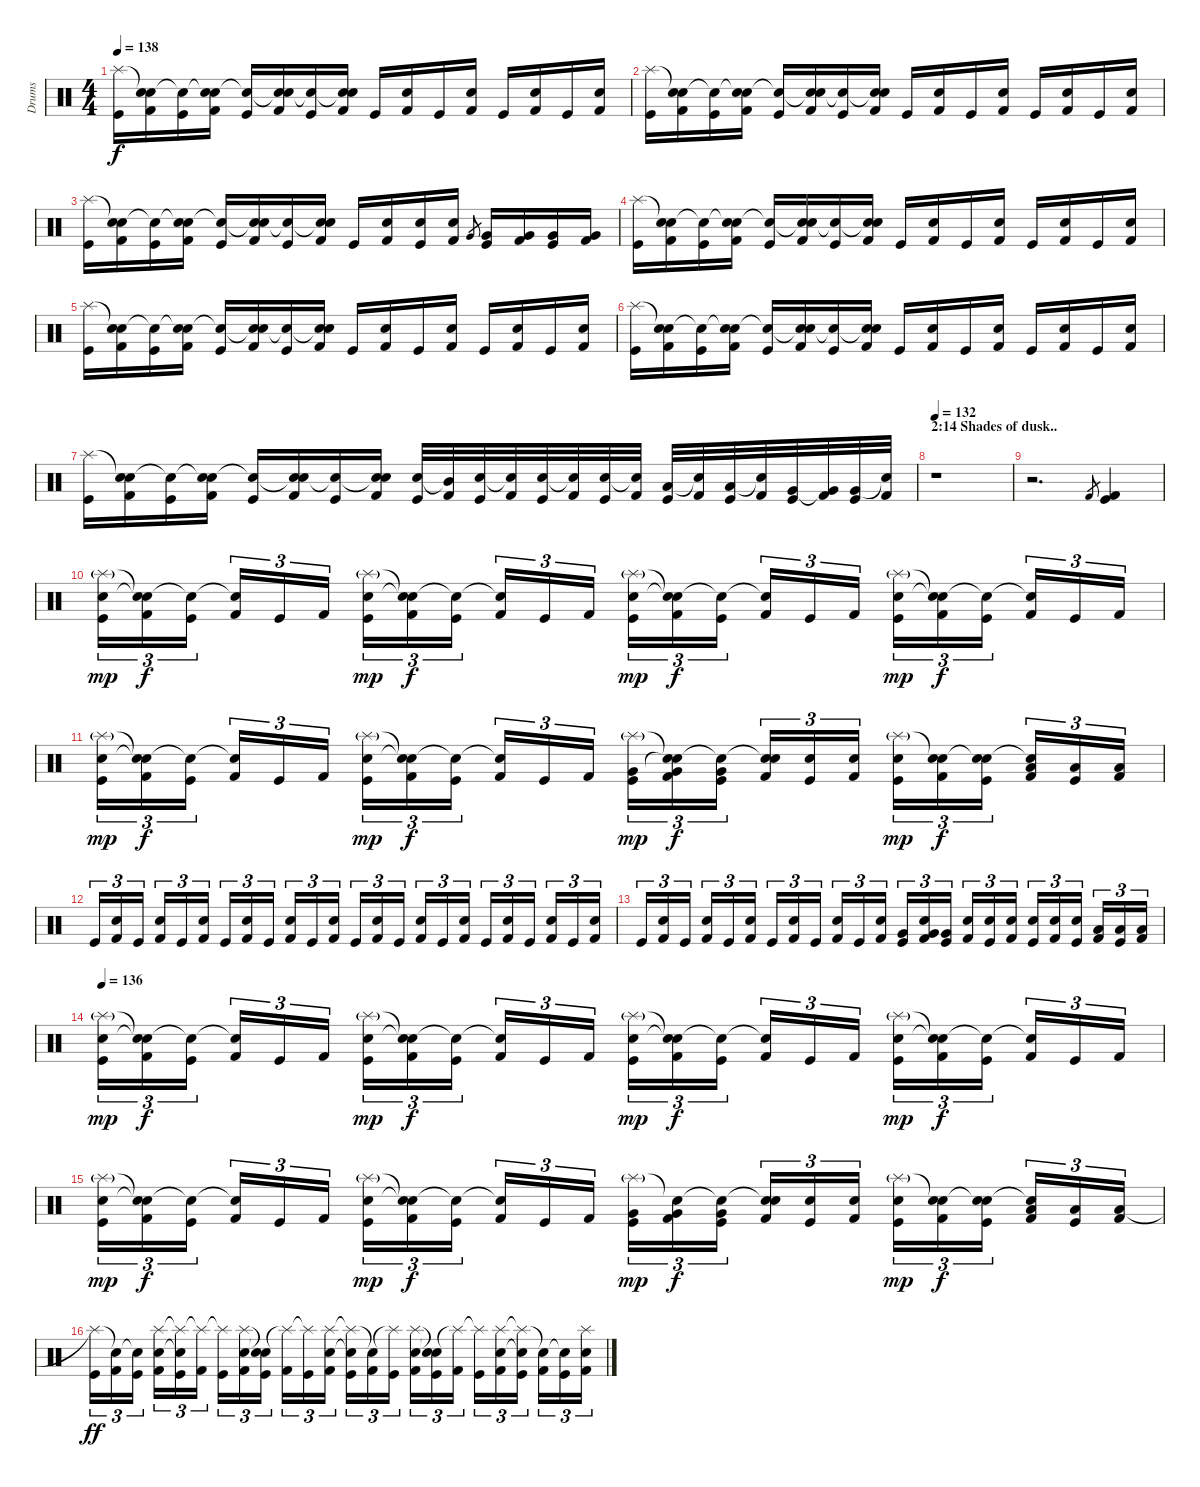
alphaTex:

\track ("Drums" "Drums") {instrument percussion}
\staff {score}
\articulation defaults
\ts (4 4)
\tempo 138
\clef neutral
\ks c
("Splash (hit)" "Kick (hit)").16{dy f} ("Snare (hit)"{t} "Snare (hit) 2" "Kick (hit) 2").16 ("Snare (hit)"{t} "Kick (hit)").16 ("Snare (hit)"{t} "Snare (hit) 2" "Kick (hit) 2").16 ("Snare (hit)"{t} "Kick (hit)").16 ("Snare (hit)"{t} "Snare (hit) 2" "Kick (hit) 2").16 ("Snare (hit)"{t} "Kick (hit)").16 ("Snare (hit)"{t} "Snare (hit) 2" "Kick (hit) 2").16 "Kick (hit)".16 ("Snare (hit) 2" "Kick (hit) 2").16 "Kick (hit)".16 ("Snare (hit) 2" "Kick (hit) 2").16 "Kick (hit)".16 ("Snare (hit) 2" "Kick (hit) 2").16 "Kick (hit)".16 ("Snare (hit) 2" "Kick (hit) 2").16 |
("Splash (hit)" "Kick (hit)").16 ("Snare (hit)"{t} "Snare (hit) 2" "Kick (hit) 2").16 ("Snare (hit)"{t} "Kick (hit)").16 ("Snare (hit)"{t} "Snare (hit) 2" "Kick (hit) 2").16 ("Snare (hit)"{t} "Kick (hit)").16 ("Snare (hit)"{t} "Snare (hit) 2" "Kick (hit) 2").16 ("Snare (hit)"{t} "Kick (hit)").16 ("Snare (hit)"{t} "Snare (hit) 2" "Kick (hit) 2").16 "Kick (hit)".16 ("Snare (hit) 2" "Kick (hit) 2").16 "Kick (hit)".16 ("Snare (hit) 2" "Kick (hit) 2").16 "Kick (hit)".16 ("Snare (hit) 2" "Kick (hit) 2").16 "Kick (hit)".16 ("Snare (hit) 2" "Kick (hit) 2").16 |
("Splash (hit)" "Kick (hit)").16 ("Snare (hit)"{t} "Snare (hit) 2" "Kick (hit) 2").16 ("Snare (hit)"{t} "Kick (hit)").16 ("Snare (hit)"{t} "Snare (hit) 2" "Kick (hit) 2").16 ("Snare (hit)"{t} "Kick (hit)").16 ("Snare (hit)"{t} "Snare (hit) 2" "Kick (hit) 2").16 ("Snare (hit)"{t} "Kick (hit)").16 ("Snare (hit)"{t} "Snare (hit) 2" "Kick (hit) 2").16 "Kick (hit)".16 ("Snare (hit) 2" "Kick (hit) 2").16 ("Snare (hit) 2" "Kick (hit)").16 ("Snare (hit) 2" "Kick (hit) 2").16 "Very Low Tom (hit)".8{gr} ("Very Low Tom (hit)" "Kick (hit)").16 ("Very Low Tom (hit)" "Kick (hit) 2").16 ("Very Low Tom (hit)" "Kick (hit)").16 ("Very Low Tom (hit)" "Kick (hit) 2").16 |
("Splash (hit)" "Kick (hit)").16 ("Snare (hit)"{t} "Snare (hit) 2" "Kick (hit) 2").16 ("Snare (hit)"{t} "Kick (hit)").16 ("Snare (hit)"{t} "Snare (hit) 2" "Kick (hit) 2").16 ("Snare (hit)"{t} "Kick (hit)").16 ("Snare (hit)"{t} "Snare (hit) 2" "Kick (hit) 2").16 ("Snare (hit)"{t} "Kick (hit)").16 ("Snare (hit)"{t} "Snare (hit) 2" "Kick (hit) 2").16 "Kick (hit)".16 ("Snare (hit) 2" "Kick (hit) 2").16 "Kick (hit)".16 ("Snare (hit) 2" "Kick (hit) 2").16 "Kick (hit)".16 ("Snare (hit) 2" "Kick (hit) 2").16 "Kick (hit)".16 ("Snare (hit) 2" "Kick (hit) 2").16 |
("Splash (hit)" "Kick (hit)").16 ("Snare (hit)"{t} "Snare (hit) 2" "Kick (hit) 2").16 ("Snare (hit)"{t} "Kick (hit)").16 ("Snare (hit)"{t} "Snare (hit) 2" "Kick (hit) 2").16 ("Snare (hit)"{t} "Kick (hit)").16 ("Snare (hit)"{t} "Snare (hit) 2" "Kick (hit) 2").16 ("Snare (hit)"{t} "Kick (hit)").16 ("Snare (hit)"{t} "Snare (hit) 2" "Kick (hit) 2").16 "Kick (hit)".16 ("Snare (hit) 2" "Kick (hit) 2").16 "Kick (hit)".16 ("Snare (hit) 2" "Kick (hit) 2").16 "Kick (hit)".16 ("Snare (hit) 2" "Kick (hit) 2").16 "Kick (hit)".16 ("Snare (hit) 2" "Kick (hit) 2").16 |
("Splash (hit)" "Kick (hit)").16 ("Snare (hit)"{t} "Snare (hit) 2" "Kick (hit) 2").16 ("Snare (hit)"{t} "Kick (hit)").16 ("Snare (hit)"{t} "Snare (hit) 2" "Kick (hit) 2").16 ("Snare (hit)"{t} "Kick (hit)").16 ("Snare (hit)"{t} "Snare (hit) 2" "Kick (hit) 2").16 ("Snare (hit)"{t} "Kick (hit)").16 ("Snare (hit)"{t} "Snare (hit) 2" "Kick (hit) 2").16 "Kick (hit)".16 ("Snare (hit) 2" "Kick (hit) 2").16 "Kick (hit)".16 ("Snare (hit) 2" "Kick (hit) 2").16 "Kick (hit)".16 ("Snare (hit) 2" "Kick (hit) 2").16 "Kick (hit)".16 ("Snare (hit) 2" "Kick (hit) 2").16 |
("Splash (hit)" "Kick (hit)").16 ("Snare (hit)"{t} "Snare (hit) 2" "Kick (hit) 2").16 ("Snare (hit)"{t} "Kick (hit)").16 ("Snare (hit)"{t} "Snare (hit) 2" "Kick (hit) 2").16 ("Snare (hit)"{t} "Kick (hit)").16 ("Snare (hit)"{t} "Snare (hit) 2" "Kick (hit) 2").16 ("Snare (hit)"{t} "Kick (hit)").16 ("Snare (hit)"{t} "Snare (hit) 2" "Kick (hit) 2").16 ("Snare (hit) 2" "Kick (hit)").32 ("Mid Tom (hit)"{t} "Kick (hit) 2").32 ("Snare (hit) 2" "Kick (hit)").32 ("Snare (hit)"{t} "Kick (hit) 2").32 ("Snare (hit) 2" "Kick (hit)").32 ("Snare (hit)"{t} "Kick (hit) 2").32 ("Snare (hit) 2" "Kick (hit)").32 ("Snare (hit)"{t} "Kick (hit) 2").32 ("Low Tom (hit)" "Kick (hit)").32 ("Snare (hit)"{t} "Kick (hit) 2").32 ("Low Tom (hit)" "Kick (hit)").32 ("Snare (hit)"{t} "Kick (hit) 2").32 ("Very Low Tom (hit)" "Kick (hit)").32 ("Very Low Tom (hit)"{t} "Kick (hit) 2").32 ("Very Low Tom (hit)" "Kick (hit)").32 ("Snare (hit)"{t} "Kick (hit) 2").32 |
\section ("" "2:14 Shades of dusk..")
\tempo 132
r.1 |
r.2{d} "Kick (hit) 2".8{gr} ("Kick (hit) 2" "Kick (hit)").4 |
("Splash (hit)"{g} "Snare (hit) 2" "Kick (hit)").16{tu (3 2) dy mp} ("Snare (hit)"{t} "Snare (hit)"{t} "Kick (hit) 2").16{tu (3 2) dy f} ("Snare (hit)"{t} "Kick (hit)").16{tu (3 2)} ("Snare (hit)"{t} "Kick (hit) 2").16{tu (3 2)} "Kick (hit)".16{tu (3 2)} "Kick (hit) 2".16{tu (3 2)} ("Splash (hit)"{g} "Snare (hit) 2" "Kick (hit)").16{tu (3 2) dy mp} ("Snare (hit)"{t} "Snare (hit)"{t} "Kick (hit) 2").16{tu (3 2) dy f} ("Snare (hit)"{t} "Kick (hit)").16{tu (3 2)} ("Snare (hit)"{t} "Kick (hit) 2").16{tu (3 2)} "Kick (hit)".16{tu (3 2)} "Kick (hit) 2".16{tu (3 2)} ("Splash (hit)"{g} "Snare (hit) 2" "Kick (hit)").16{tu (3 2) dy mp} ("Snare (hit)"{t} "Snare (hit)"{t} "Kick (hit) 2").16{tu (3 2) dy f} ("Snare (hit)"{t} "Kick (hit)").16{tu (3 2)} ("Snare (hit)"{t} "Kick (hit) 2").16{tu (3 2)} "Kick (hit)".16{tu (3 2)} "Kick (hit) 2".16{tu (3 2)} ("Splash (hit)"{g} "Snare (hit) 2" "Kick (hit)").16{tu (3 2) dy mp} ("Snare (hit)"{t} "Snare (hit)"{t} "Kick (hit) 2").16{tu (3 2) dy f} ("Snare (hit)"{t} "Kick (hit)").16{tu (3 2)} ("Snare (hit)"{t} "Kick (hit) 2").16{tu (3 2)} "Kick (hit)".16{tu (3 2)} "Kick (hit) 2".16{tu (3 2)} |
("Splash (hit)"{g} "Snare (hit) 2" "Kick (hit)").16{tu (3 2) dy mp} ("Snare (hit)"{t} "Snare (hit)"{t} "Kick (hit) 2").16{tu (3 2) dy f} ("Snare (hit)"{t} "Kick (hit)").16{tu (3 2)} ("Snare (hit)"{t} "Kick (hit) 2").16{tu (3 2)} "Kick (hit)".16{tu (3 2)} "Kick (hit) 2".16{tu (3 2)} ("Splash (hit)"{g} "Snare (hit) 2" "Kick (hit)").16{tu (3 2) dy mp} ("Snare (hit)"{t} "Snare (hit)"{t} "Kick (hit) 2").16{tu (3 2) dy f} ("Snare (hit)"{t} "Kick (hit)").16{tu (3 2)} ("Snare (hit)"{t} "Kick (hit) 2").16{tu (3 2)} "Kick (hit)".16{tu (3 2)} "Kick (hit) 2".16{tu (3 2)} ("Splash (hit)"{g} "Very Low Tom (hit)" "Kick (hit)").16{tu (3 2) dy mp} ("Snare (hit)"{t} "Snare (hit)"{t} "Very Low Tom (hit)" "Kick (hit) 2").16{tu (3 2) dy f} ("Snare (hit)"{t} "Very Low Tom (hit)" "Kick (hit)").16{tu (3 2)} ("Snare (hit)"{t} "Snare (hit) 2" "Kick (hit) 2").16{tu (3 2)} ("Snare (hit) 2" "Kick (hit)").16{tu (3 2)} ("Snare (hit) 2" "Kick (hit) 2").16{tu (3 2)} ("Splash (hit)"{g} "Snare (hit) 2" "Kick (hit)").16{tu (3 2) dy mp} ("Snare (hit)"{t} "Snare (hit) 2" "Kick (hit) 2").16{tu (3 2) dy f} ("Snare (hit)"{t} "Snare (hit) 2" "Kick (hit)").16{tu (3 2)} ("Snare (hit)"{t} "Low Floor Tom (hit)" "Kick (hit) 2").16{tu (3 2)} ("Low Floor Tom (hit)" "Kick (hit)").16{tu (3 2)} ("Low Floor Tom (hit)" "Kick (hit) 2").16{tu (3 2)} |
"Kick (hit)".16{tu (3 2)} ("Snare (hit) 2" "Kick (hit) 2").16{tu (3 2)} "Kick (hit)".16{tu (3 2)} ("Snare (hit) 2" "Kick (hit) 2").16{tu (3 2)} "Kick (hit)".16{tu (3 2)} ("Snare (hit) 2" "Kick (hit) 2").16{tu (3 2)} "Kick (hit)".16{tu (3 2)} ("Snare (hit) 2" "Kick (hit) 2").16{tu (3 2)} "Kick (hit)".16{tu (3 2)} ("Snare (hit) 2" "Kick (hit) 2").16{tu (3 2)} "Kick (hit)".16{tu (3 2)} ("Snare (hit) 2" "Kick (hit) 2").16{tu (3 2)} "Kick (hit)".16{tu (3 2)} ("Snare (hit) 2" "Kick (hit) 2").16{tu (3 2)} "Kick (hit)".16{tu (3 2)} ("Snare (hit) 2" "Kick (hit) 2").16{tu (3 2)} "Kick (hit)".16{tu (3 2)} ("Snare (hit) 2" "Kick (hit) 2").16{tu (3 2)} "Kick (hit)".16{tu (3 2)} ("Snare (hit) 2" "Kick (hit) 2").16{tu (3 2)} "Kick (hit)".16{tu (3 2)} ("Snare (hit) 2" "Kick (hit) 2").16{tu (3 2)} "Kick (hit)".16{tu (3 2)} ("Snare (hit) 2" "Kick (hit) 2").16{tu (3 2)} |
"Kick (hit)".16{tu (3 2)} ("Snare (hit) 2" "Kick (hit) 2").16{tu (3 2)} "Kick (hit)".16{tu (3 2)} ("Snare (hit) 2" "Kick (hit) 2").16{tu (3 2)} "Kick (hit)".16{tu (3 2)} ("Snare (hit) 2" "Kick (hit) 2").16{tu (3 2)} "Kick (hit)".16{tu (3 2)} ("Snare (hit) 2" "Kick (hit) 2").16{tu (3 2)} "Kick (hit)".16{tu (3 2)} ("Snare (hit) 2" "Kick (hit) 2").16{tu (3 2)} "Kick (hit)".16{tu (3 2)} ("Snare (hit) 2" "Kick (hit) 2").16{tu (3 2)} ("Very Low Tom (hit)" "Kick (hit)").16{tu (3 2)} ("Snare (hit) 2" "Very Low Tom (hit)" "Kick (hit) 2").16{tu (3 2)} ("Very Low Tom (hit)" "Kick (hit)").16{tu (3 2)} ("Snare (hit) 2" "Kick (hit) 2").16{tu (3 2)} ("Snare (hit) 2" "Kick (hit)").16{tu (3 2)} ("Snare (hit) 2" "Kick (hit) 2").16{tu (3 2)} ("Snare (hit) 2" "Kick (hit)").16{tu (3 2)} ("Snare (hit) 2" "Kick (hit) 2").16{tu (3 2)} ("Snare (hit) 2" "Kick (hit)").16{tu (3 2)} ("Low Floor Tom (hit)" "Kick (hit) 2").16{tu (3 2)} ("Low Floor Tom (hit)" "Kick (hit)").16{tu (3 2)} ("Low Floor Tom (hit)" "Kick (hit) 2").16{tu (3 2)} |
\tempo 136
("Splash (hit)"{g} "Snare (hit) 2" "Kick (hit)").16{tu (3 2) dy mp} ("Snare (hit)"{t} "Snare (hit)"{t} "Kick (hit) 2").16{tu (3 2) dy f} ("Snare (hit)"{t} "Kick (hit)").16{tu (3 2)} ("Snare (hit)"{t} "Kick (hit) 2").16{tu (3 2)} "Kick (hit)".16{tu (3 2)} "Kick (hit) 2".16{tu (3 2)} ("Splash (hit)"{g} "Snare (hit) 2" "Kick (hit)").16{tu (3 2) dy mp} ("Snare (hit)"{t} "Snare (hit)"{t} "Kick (hit) 2").16{tu (3 2) dy f} ("Snare (hit)"{t} "Kick (hit)").16{tu (3 2)} ("Snare (hit)"{t} "Kick (hit) 2").16{tu (3 2)} "Kick (hit)".16{tu (3 2)} "Kick (hit) 2".16{tu (3 2)} ("Splash (hit)"{g} "Snare (hit) 2" "Kick (hit)").16{tu (3 2) dy mp} ("Snare (hit)"{t} "Snare (hit)"{t} "Kick (hit) 2").16{tu (3 2) dy f} ("Snare (hit)"{t} "Kick (hit)").16{tu (3 2)} ("Snare (hit)"{t} "Kick (hit) 2").16{tu (3 2)} "Kick (hit)".16{tu (3 2)} "Kick (hit) 2".16{tu (3 2)} ("Splash (hit)"{g} "Snare (hit) 2" "Kick (hit)").16{tu (3 2) dy mp} ("Snare (hit)"{t} "Snare (hit)"{t} "Kick (hit) 2").16{tu (3 2) dy f} ("Snare (hit)"{t} "Kick (hit)").16{tu (3 2)} ("Snare (hit)"{t} "Kick (hit) 2").16{tu (3 2)} "Kick (hit)".16{tu (3 2)} "Kick (hit) 2".16{tu (3 2)} |
("Splash (hit)"{g} "Snare (hit) 2" "Kick (hit)").16{tu (3 2) dy mp} ("Snare (hit)"{t} "Snare (hit)"{t} "Kick (hit) 2").16{tu (3 2) dy f} ("Snare (hit)"{t} "Kick (hit)").16{tu (3 2)} ("Snare (hit)"{t} "Kick (hit) 2").16{tu (3 2)} "Kick (hit)".16{tu (3 2)} "Kick (hit) 2".16{tu (3 2)} ("Splash (hit)"{g} "Snare (hit) 2" "Kick (hit)").16{tu (3 2) dy mp} ("Snare (hit)"{t} "Snare (hit)"{t} "Kick (hit) 2").16{tu (3 2) dy f} ("Snare (hit)"{t} "Kick (hit)").16{tu (3 2)} ("Snare (hit)"{t} "Kick (hit) 2").16{tu (3 2)} "Kick (hit)".16{tu (3 2)} "Kick (hit) 2".16{tu (3 2)} ("Splash (hit)"{g} "Very Low Tom (hit)" "Kick (hit)").16{tu (3 2) dy mp} ("Snare (hit)"{t} "Very Low Tom (hit)" "Kick (hit) 2").16{tu (3 2) dy f} ("Snare (hit)"{t} "Very Low Tom (hit)" "Kick (hit)").16{tu (3 2)} ("Snare (hit)"{t} "Snare (hit) 2" "Kick (hit) 2").16{tu (3 2)} ("Snare (hit) 2" "Kick (hit)").16{tu (3 2)} ("Snare (hit) 2" "Kick (hit) 2").16{tu (3 2)} ("Splash (hit)"{g} "Snare (hit) 2" "Kick (hit)").16{tu (3 2) dy mp} ("Snare (hit)"{t} "Snare (hit) 2" "Kick (hit) 2").16{tu (3 2) dy f} ("Snare (hit)"{t} "Snare (hit) 2" "Kick (hit)").16{tu (3 2)} ("Snare (hit)"{t} "Low Floor Tom (hit)" "Kick (hit) 2").16{tu (3 2)} ("Low Floor Tom (hit)" "Kick (hit)").16{tu (3 2)} ("Low Floor Tom (hit)" "Kick (hit) 2").16{tu (3 2)} |
("Splash (hit)"{t} "Kick (hit)").16{tu (3 2) dy ff} ("Snare (hit)"{t} "Kick (hit) 2").16{tu (3 2)} ("Snare (hit)"{t} "Kick (hit)").16{tu (3 2)} ("Splash (hit)" "Snare (hit) 2" "Kick (hit) 2").16{tu (3 2)} ("Splash (hit)"{t} "Snare (hit) 2"{t} "Kick (hit)").16{tu (3 2)} ("Splash (hit)"{t} "Kick (hit) 2").16{tu (3 2)} ("Splash (hit)"{t} "Kick (hit)").16{tu (3 2)} ("Splash (hit)" "Snare (hit) 2" "Kick (hit) 2").16{tu (3 2)} ("Snare (hit)"{t} "Snare (hit)"{t} "Kick (hit)").16{tu (3 2)} ("Splash (hit)"{t} "Kick (hit) 2").16{tu (3 2)} ("Splash (hit)"{t} "Kick (hit)").16{tu (3 2)} ("Splash (hit)" "Snare (hit) 2" "Kick (hit) 2").16{tu (3 2)} ("Splash (hit)"{t} "Snare (hit) 2"{t} "Kick (hit)").16{tu (3 2)} ("Snare (hit)"{t} "Kick (hit) 2").16{tu (3 2)} ("Splash (hit)"{t} "Kick (hit)").16{tu (3 2)} ("Splash (hit)" "Snare (hit) 2" "Kick (hit) 2").16{tu (3 2)} ("Snare (hit)"{t} "Snare (hit) 2"{t} "Kick (hit)").16{tu (3 2)} ("Splash (hit)"{t} "Kick (hit) 2").16{tu (3 2)} ("Splash (hit)"{t} "Kick (hit)").16{tu (3 2)} ("Splash (hit)" "Snare (hit) 2" "Kick (hit) 2").16{tu (3 2)} ("Splash (hit)"{t} "Snare (hit) 2"{t} "Kick (hit)").16{tu (3 2)} ("Snare (hit)"{t} "Kick (hit) 2").16{tu (3 2)} ("Snare (hit)"{t} "Kick (hit)").16{tu (3 2)} ("Splash (hit)" "Snare (hit) 2" "Kick (hit) 2").16{tu (3 2)}
